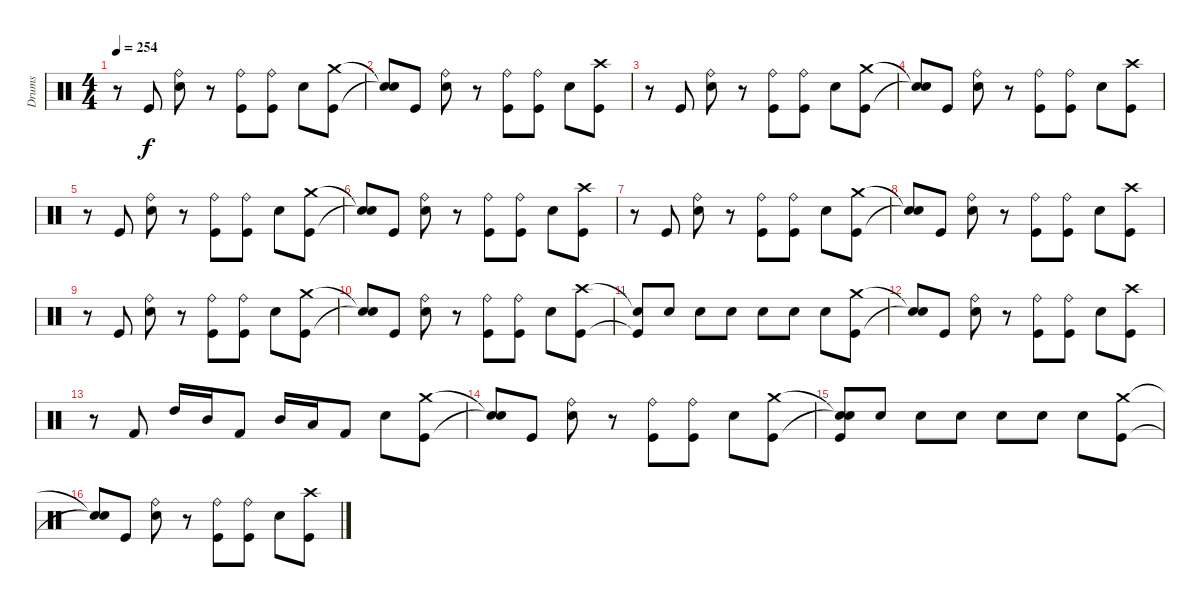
\track ("Drums" "Drums") {instrument percussion}
\staff {score}
\articulation defaults
\ts (4 4)
\tempo 254
\clef neutral
\ks c
r.8{dy f} "Kick (hit)".8 ("Ride (bell)" "Electric Snare (hit)").8 r.8 ("Ride (bell)" "Kick (hit)").8 ("Ride (bell)" "Kick (hit)").8 "Electric Snare (hit)".8 ("Crash medium (hit)" "Kick (hit)").8 |
("Snare (hit)"{t} "Snare (hit)"{t}).8 "Kick (hit)".8 ("Ride (bell)" "Electric Snare (hit)").8 r.8 ("Ride (bell)" "Kick (hit)").8 ("Ride (bell)" "Kick (hit)").8 "Electric Snare (hit)".8 ("Crash high (hit)" "Kick (hit)").8 |
r.8 "Kick (hit)".8 ("Ride (bell)" "Electric Snare (hit)").8 r.8 ("Ride (bell)" "Kick (hit)").8 ("Ride (bell)" "Kick (hit)").8 "Electric Snare (hit)".8 ("Crash medium (hit)" "Kick (hit)").8 |
("Snare (hit)"{t} "Snare (hit)"{t}).8 "Kick (hit)".8 ("Ride (bell)" "Electric Snare (hit)").8 r.8 ("Ride (bell)" "Kick (hit)").8 ("Ride (bell)" "Kick (hit)").8 "Electric Snare (hit)".8 ("Crash high (hit)" "Kick (hit)").8 |
r.8 "Kick (hit)".8 ("Ride (bell)" "Electric Snare (hit)").8 r.8 ("Ride (bell)" "Kick (hit)").8 ("Ride (bell)" "Kick (hit)").8 "Electric Snare (hit)".8 ("Crash medium (hit)" "Kick (hit)").8 |
("Snare (hit)"{t} "Snare (hit)"{t}).8 "Kick (hit)".8 ("Ride (bell)" "Electric Snare (hit)").8 r.8 ("Ride (bell)" "Kick (hit)").8 ("Ride (bell)" "Kick (hit)").8 "Electric Snare (hit)".8 ("Crash high (hit)" "Kick (hit)").8 |
r.8 "Kick (hit)".8 ("Ride (bell)" "Electric Snare (hit)").8 r.8 ("Ride (bell)" "Kick (hit)").8 ("Ride (bell)" "Kick (hit)").8 "Electric Snare (hit)".8 ("Crash medium (hit)" "Kick (hit)").8 |
("Snare (hit)"{t} "Snare (hit)"{t}).8 "Kick (hit)".8 ("Ride (bell)" "Electric Snare (hit)").8 r.8 ("Ride (bell)" "Kick (hit)").8 ("Ride (bell)" "Kick (hit)").8 "Electric Snare (hit)".8 ("Crash high (hit)" "Kick (hit)").8 |
r.8 "Kick (hit)".8 ("Ride (bell)" "Electric Snare (hit)").8 r.8 ("Ride (bell)" "Kick (hit)").8 ("Ride (bell)" "Kick (hit)").8 "Electric Snare (hit)".8 ("Crash medium (hit)" "Kick (hit)").8 |
("Snare (hit)"{t} "Snare (hit)"{t}).8 "Kick (hit)".8 ("Ride (bell)" "Electric Snare (hit)").8 r.8 ("Ride (bell)" "Kick (hit)").8 ("Ride (bell)" "Kick (hit)").8 "Electric Snare (hit)".8 ("Crash high (hit)" "Kick (hit)").8 |
("Snare (hit)"{t} "Kick (hit)"{t}).8 "Electric Snare (hit)".8 "Electric Snare (hit)".8 "Electric Snare (hit)".8 "Electric Snare (hit)".8 "Electric Snare (hit)".8 "Electric Snare (hit)".8 ("Crash medium (hit)" "Kick (hit)").8 |
("Snare (hit)"{t} "Snare (hit)"{t}).8 "Kick (hit)".8 ("Ride (bell)" "Electric Snare (hit)").8 r.8 ("Ride (bell)" "Kick (hit)").8 ("Ride (bell)" "Kick (hit)").8 "Electric Snare (hit)".8 ("Crash high (hit)" "Kick (hit)").8 |
r.8 "Kick (hit) 2".8 "High Tom (hit)".16 "Mid Tom (hit)".16 "Kick (hit) 2".8 "Mid Tom (hit)".16 "Low Tom (hit)".16 "Kick (hit) 2".8 "Electric Snare (hit)".8 ("Crash medium (hit)" "Kick (hit)").8 |
("Snare (hit)"{t} "Snare (hit)"{t}).8 "Kick (hit)".8 ("Ride (bell)" "Electric Snare (hit)").8 r.8 ("Ride (bell)" "Kick (hit)").8 ("Ride (bell)" "Kick (hit)").8 "Electric Snare (hit)".8 ("Crash medium (hit)" "Kick (hit)").8 |
("Snare (hit)"{t} "Snare (hit)"{t} "Kick (hit)").8 "Electric Snare (hit)".8 "Electric Snare (hit)".8 "Electric Snare (hit)".8 "Electric Snare (hit)".8 "Electric Snare (hit)".8 "Electric Snare (hit)".8 ("Crash medium (hit)" "Kick (hit)").8 |
("Snare (hit)"{t} "Snare (hit)"{t}).8 "Kick (hit)".8 ("Ride (bell)" "Electric Snare (hit)").8 r.8 ("Ride (bell)" "Kick (hit)").8 ("Ride (bell)" "Kick (hit)").8 "Electric Snare (hit)".8 ("Crash high (hit)" "Kick (hit)").8
